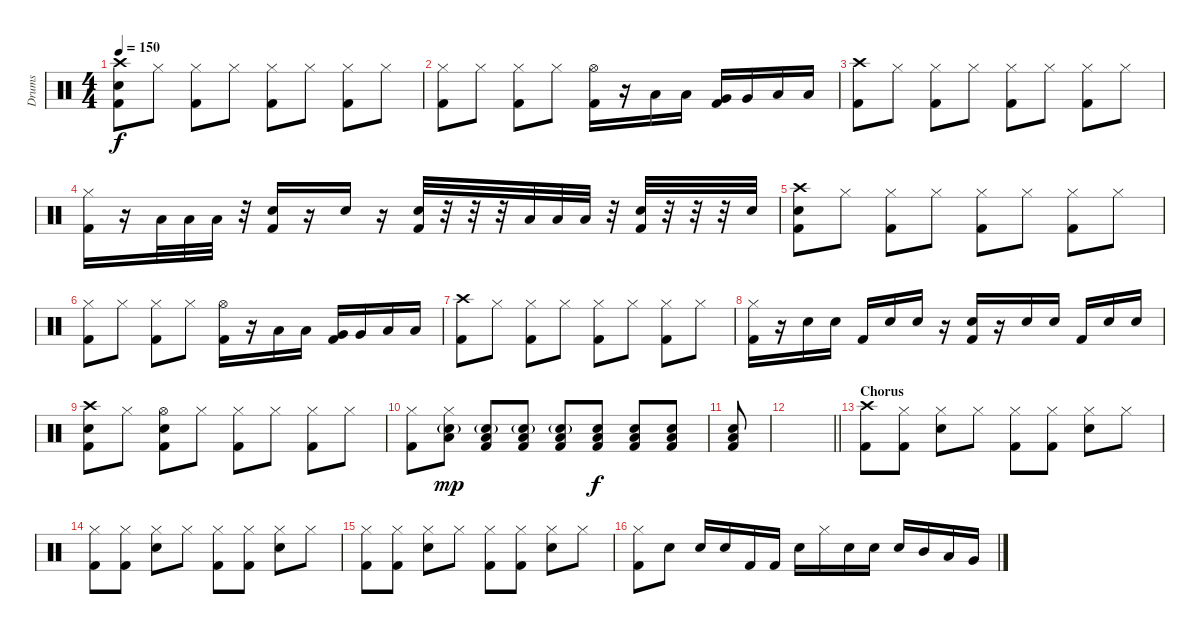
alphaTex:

\track ("Drums" "Drums") {instrument percussion}
\staff {score}
\articulation defaults
\ts (4 4)
\tempo 150
\clef neutral
\ks c
("Kick (hit) 2" "Crash high (hit)" "Snare (hit) 2").8{dy f} "Hi-Hat (closed)".8 ("Hi-Hat (closed)" "Kick (hit) 2").8 "Hi-Hat (closed)".8 ("Hi-Hat (closed)" "Kick (hit) 2").8 "Hi-Hat (closed)".8 ("Hi-Hat (closed)" "Kick (hit) 2").8 "Hi-Hat (closed)".8 |
("Hi-Hat (closed)" "Kick (hit) 2").8 "Hi-Hat (closed)".8 ("Hi-Hat (closed)" "Kick (hit) 2").8 "Hi-Hat (closed)".8 ("Hi-Hat (open)" "Kick (hit) 2").16 r.16 "Low Tom (hit)".16 "Low Tom (hit)".16 ("Very Low Tom (hit)" "Kick (hit) 2").16 "Very Low Tom (hit)".16 "Low Floor Tom (hit)".16 "Low Floor Tom (hit)".16 |
("Crash high (hit)" "Kick (hit) 2").8 "Hi-Hat (closed)".8 ("Hi-Hat (closed)" "Kick (hit) 2").8 "Hi-Hat (closed)".8 ("Hi-Hat (closed)" "Kick (hit) 2").8 "Hi-Hat (closed)".8 ("Hi-Hat (closed)" "Kick (hit) 2").8 "Hi-Hat (closed)".8 |
("Hi-Hat (closed)" "Kick (hit) 2").16 r.16 "Low Tom (hit)".32 "Low Tom (hit)".32 "Low Tom (hit)".32 r.32 ("Kick (hit) 2" "Snare (hit) 2").16 r.16 "Snare (hit) 2".16 r.16 ("Kick (hit) 2" "Snare (hit) 2").32 r.32 r.32 r.32 "Low Tom (hit)".32 "Low Tom (hit)".32 "Low Tom (hit)".32 r.32 ("Kick (hit) 2" "Snare (hit) 2").32 r.32 r.32 r.32 "Snare (hit) 2".32 |
("Snare (hit) 2" "Crash high (hit)" "Kick (hit) 2").8 "Hi-Hat (closed)".8 ("Hi-Hat (closed)" "Kick (hit) 2").8 "Hi-Hat (closed)".8 ("Hi-Hat (closed)" "Kick (hit) 2").8 "Hi-Hat (closed)".8 ("Hi-Hat (closed)" "Kick (hit) 2").8 "Hi-Hat (closed)".8 |
("Hi-Hat (closed)" "Kick (hit) 2").8 "Hi-Hat (closed)".8 ("Hi-Hat (closed)" "Kick (hit) 2").8 "Hi-Hat (closed)".8 ("Hi-Hat (open)" "Kick (hit) 2").16 r.16 "Low Tom (hit)".16 "Low Tom (hit)".16 ("Very Low Tom (hit)" "Kick (hit) 2").16 "Very Low Tom (hit)".16 "Low Floor Tom (hit)".16 "Low Floor Tom (hit)".16 |
("Crash high (hit)" "Kick (hit) 2").8 "Hi-Hat (closed)".8 ("Hi-Hat (closed)" "Kick (hit) 2").8 "Hi-Hat (closed)".8 ("Hi-Hat (closed)" "Kick (hit) 2").8 "Hi-Hat (closed)".8 ("Hi-Hat (closed)" "Kick (hit) 2").8 "Hi-Hat (closed)".8 |
("Hi-Hat (closed)" "Kick (hit) 2").16 r.16 "Snare (hit) 2".16 "Snare (hit) 2".16 "Kick (hit) 2".16 "Snare (hit) 2".16 "Snare (hit) 2".16 r.16 ("Kick (hit) 2" "Snare (hit) 2").16 r.16 "Snare (hit) 2".16 "Snare (hit) 2".16 "Kick (hit) 2".16 "Snare (hit) 2".16 "Snare (hit) 2".16 |
("Kick (hit) 2" "Crash high (hit)" "Snare (hit) 2").8 "Hi-Hat (closed)".8 ("Kick (hit) 2" "Hi-Hat (open)" "Snare (hit) 2").8 "Hi-Hat (closed)".8 ("Hi-Hat (closed)" "Kick (hit) 2").8 "Hi-Hat (closed)".8 ("Hi-Hat (closed)" "Kick (hit) 2").8 "Hi-Hat (closed)".8 |
("Hi-Hat (closed)" "Kick (hit) 2").8 ("Low Tom (hit)" "Hi-Hat (closed)" "Snare (hit) 2"{g}).8{dy mp} ("Low Tom (hit)" "Kick (hit) 2" "Snare (hit) 2"{g}).8 ("Low Tom (hit)" "Kick (hit) 2" "Snare (hit) 2"{g}).8 ("Low Tom (hit)" "Kick (hit) 2" "Snare (hit) 2"{g}).8 ("Low Tom (hit)" "Kick (hit) 2" "Snare (hit) 2").8{dy f} ("Low Tom (hit)" "Kick (hit) 2" "Snare (hit) 2").8 ("Low Tom (hit)" "Kick (hit) 2" "Snare (hit) 2").8 |
("Low Tom (hit)" "Kick (hit) 2" "Snare (hit) 2").8 |
\barLineRight lightlight
|
\section ("" "Chorus")
("Crash high (hit)" "Kick (hit) 2").8 ("Hi-Hat (closed)" "Kick (hit) 2").8 ("Hi-Hat (closed)" "Snare (hit) 2").8 "Hi-Hat (closed)".8 ("Hi-Hat (closed)" "Kick (hit) 2").8 ("Hi-Hat (closed)" "Kick (hit) 2").8 ("Hi-Hat (closed)" "Snare (hit) 2").8 "Hi-Hat (closed)".8 |
("Hi-Hat (closed)" "Kick (hit) 2").8 ("Hi-Hat (closed)" "Kick (hit) 2").8 ("Hi-Hat (closed)" "Snare (hit) 2").8 "Hi-Hat (closed)".8 ("Hi-Hat (closed)" "Kick (hit) 2").8 ("Hi-Hat (closed)" "Kick (hit) 2").8 ("Hi-Hat (closed)" "Snare (hit) 2").8 "Hi-Hat (closed)".8 |
("Hi-Hat (closed)" "Kick (hit) 2").8 ("Hi-Hat (closed)" "Kick (hit) 2").8 ("Hi-Hat (closed)" "Snare (hit) 2").8 "Hi-Hat (closed)".8 ("Hi-Hat (closed)" "Kick (hit) 2").8 ("Hi-Hat (closed)" "Kick (hit) 2").8 ("Hi-Hat (closed)" "Snare (hit) 2").8 "Hi-Hat (closed)".8 |
("Hi-Hat (closed)" "Kick (hit) 2").8 "Snare (hit) 2".8 "Snare (hit) 2".16 "Snare (hit) 2".16 "Kick (hit) 2".16 "Kick (hit) 2".16 "Snare (hit) 2".16 "Hi-Hat (closed)".16 "Snare (hit) 2".16 "Snare (hit) 2".16 "Snare (hit) 2".16 "Mid Tom (hit)".16 "Low Tom (hit)".16 "Very Low Tom (hit)".16
